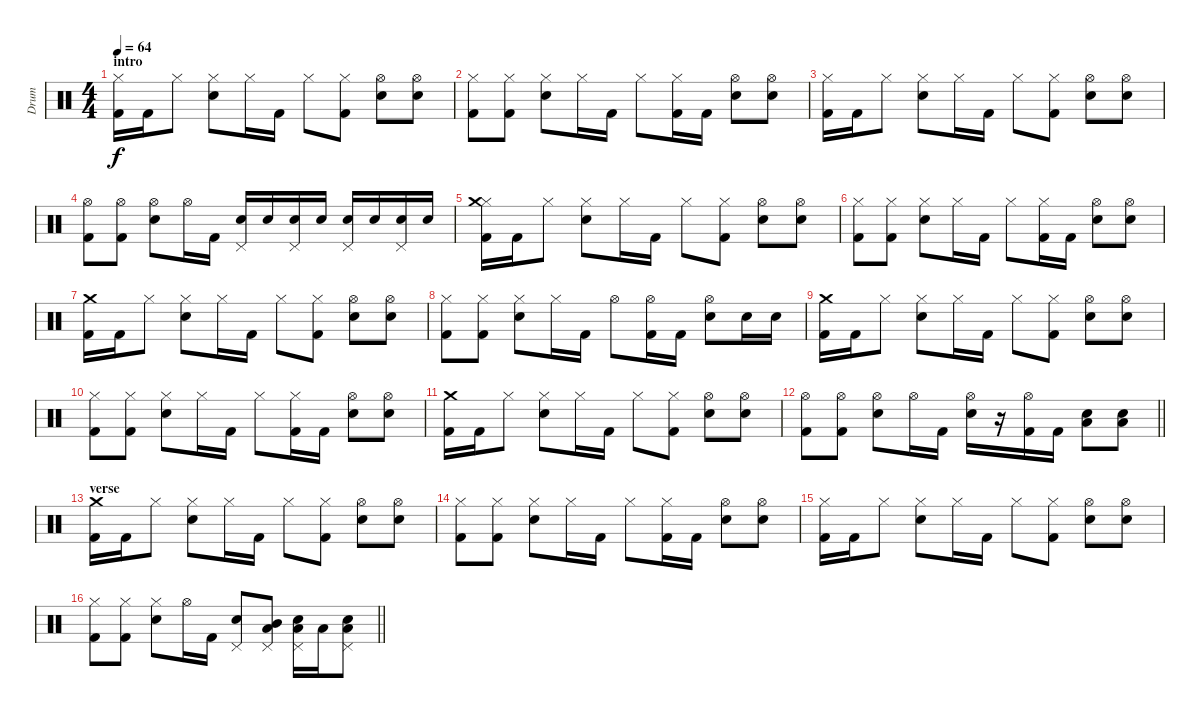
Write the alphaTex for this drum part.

\track ("Drum" "Drum") {instrument percussion}
\staff {score}
\articulation defaults
\ts (4 4)
\section ("" "intro")
\tempo 64
\clef neutral
\ks c
("Hi-Hat (closed)" "Kick (hit) 2").16{dy f} "Kick (hit) 2".16 "Hi-Hat (closed)".8 ("Electric Snare (hit)" "Hi-Hat (closed)").8 "Hi-Hat (closed)".16 "Kick (hit) 2".16 "Hi-Hat (closed)".8 ("Hi-Hat (closed)" "Kick (hit) 2").8 ("Electric Snare (hit)" "Hi-Hat (open)").8 ("Electric Snare (hit)" "Hi-Hat (open)").8 |
("Hi-Hat (closed)" "Kick (hit) 2").8 ("Hi-Hat (closed)" "Kick (hit) 2").8 ("Electric Snare (hit)" "Hi-Hat (closed)").8 "Hi-Hat (closed)".16 "Kick (hit) 2".16 "Hi-Hat (closed)".8 ("Hi-Hat (closed)" "Kick (hit) 2").16 "Kick (hit) 2".16 ("Electric Snare (hit)" "Hi-Hat (open)").8 ("Electric Snare (hit)" "Hi-Hat (open)").8 |
("Hi-Hat (closed)" "Kick (hit) 2").16 "Kick (hit) 2".16 "Hi-Hat (closed)".8 ("Electric Snare (hit)" "Hi-Hat (closed)").8 "Hi-Hat (closed)".16 "Kick (hit) 2".16 "Hi-Hat (closed)".8 ("Hi-Hat (closed)" "Kick (hit) 2").8 ("Electric Snare (hit)" "Hi-Hat (open)").8 ("Electric Snare (hit)" "Hi-Hat (open)").8 |
("Hi-Hat (open)" "Kick (hit) 2").8 ("Hi-Hat (open)" "Kick (hit) 2").8 ("Electric Snare (hit)" "Hi-Hat (open)").8 "Hi-Hat (open)".16 "Kick (hit) 2".16 ("Electric Snare (hit)" "Pedal Hi-Hat (hit)").16 "Electric Snare (hit)".16 ("Electric Snare (hit)" "Pedal Hi-Hat (hit)").16 "Electric Snare (hit)".16 ("Electric Snare (hit)" "Pedal Hi-Hat (hit)").16 "Electric Snare (hit)".16 ("Electric Snare (hit)" "Pedal Hi-Hat (hit)").16 "Electric Snare (hit)".16 |
("Hi-Hat (closed)" "Kick (hit) 2" "Crash medium (hit)").16 "Kick (hit) 2".16 "Hi-Hat (closed)".8 ("Electric Snare (hit)" "Hi-Hat (closed)").8 "Hi-Hat (closed)".16 "Kick (hit) 2".16 "Hi-Hat (closed)".8 ("Hi-Hat (closed)" "Kick (hit) 2").8 ("Electric Snare (hit)" "Hi-Hat (open)").8 ("Electric Snare (hit)" "Hi-Hat (open)").8 |
("Hi-Hat (closed)" "Kick (hit) 2").8 ("Hi-Hat (closed)" "Kick (hit) 2").8 ("Electric Snare (hit)" "Hi-Hat (closed)").8 "Hi-Hat (closed)".16 "Kick (hit) 2".16 "Hi-Hat (closed)".8 ("Hi-Hat (closed)" "Kick (hit) 2").16 "Kick (hit) 2".16 ("Electric Snare (hit)" "Hi-Hat (open)").8 ("Electric Snare (hit)" "Hi-Hat (open)").8 |
("Kick (hit) 2" "Crash medium (hit)").16 "Kick (hit) 2".16 "Hi-Hat (closed)".8 ("Electric Snare (hit)" "Hi-Hat (closed)").8 "Hi-Hat (closed)".16 "Kick (hit) 2".16 "Hi-Hat (closed)".8 ("Hi-Hat (closed)" "Kick (hit) 2").8 ("Electric Snare (hit)" "Hi-Hat (open)").8 ("Electric Snare (hit)" "Hi-Hat (open)").8 |
("Hi-Hat (closed)" "Kick (hit) 2").8 ("Hi-Hat (closed)" "Kick (hit) 2").8 ("Electric Snare (hit)" "Hi-Hat (closed)").8 "Hi-Hat (closed)".16 "Kick (hit) 2".16 "Hi-Hat (open)".8 ("Hi-Hat (open)" "Kick (hit) 2").16 "Kick (hit) 2".16 ("Electric Snare (hit)" "Hi-Hat (open)").8 "Electric Snare (hit)".16 "Electric Snare (hit)".16 |
("Kick (hit) 2" "Crash medium (hit)").16 "Kick (hit) 2".16 "Hi-Hat (closed)".8 ("Electric Snare (hit)" "Hi-Hat (closed)").8 "Hi-Hat (closed)".16 "Kick (hit) 2".16 "Hi-Hat (closed)".8 ("Hi-Hat (closed)" "Kick (hit) 2").8 ("Electric Snare (hit)" "Hi-Hat (open)").8 ("Electric Snare (hit)" "Hi-Hat (open)").8 |
("Hi-Hat (closed)" "Kick (hit) 2").8 ("Hi-Hat (closed)" "Kick (hit) 2").8 ("Electric Snare (hit)" "Hi-Hat (closed)").8 "Hi-Hat (closed)".16 "Kick (hit) 2".16 "Hi-Hat (closed)".8 ("Hi-Hat (closed)" "Kick (hit) 2").16 "Kick (hit) 2".16 ("Electric Snare (hit)" "Hi-Hat (open)").8 ("Electric Snare (hit)" "Hi-Hat (open)").8 |
("Kick (hit) 2" "Crash medium (hit)").16 "Kick (hit) 2".16 "Hi-Hat (closed)".8 ("Electric Snare (hit)" "Hi-Hat (closed)").8 "Hi-Hat (closed)".16 "Kick (hit) 2".16 "Hi-Hat (closed)".8 ("Hi-Hat (closed)" "Kick (hit) 2").8 ("Electric Snare (hit)" "Hi-Hat (open)").8 ("Electric Snare (hit)" "Hi-Hat (open)").8 |
\barLineRight lightlight
("Hi-Hat (open)" "Kick (hit) 2").8 ("Hi-Hat (open)" "Kick (hit) 2").8 ("Electric Snare (hit)" "Hi-Hat (open)").8 "Hi-Hat (open)".16 "Kick (hit) 2".16 ("Electric Snare (hit)" "Hi-Hat (open)").16 r.16 ("Hi-Hat (open)" "Kick (hit) 2").16 "Kick (hit) 2".16 ("Electric Snare (hit)" "Low Floor Tom (hit)").8 ("Electric Snare (hit)" "Low Floor Tom (hit)").8 |
\section ("" "verse")
("Kick (hit) 2" "Crash medium (hit)").16 "Kick (hit) 2".16 "Hi-Hat (closed)".8 ("Electric Snare (hit)" "Hi-Hat (closed)").8 "Hi-Hat (closed)".16 "Kick (hit) 2".16 "Hi-Hat (closed)".8 ("Hi-Hat (closed)" "Kick (hit) 2").8 ("Electric Snare (hit)" "Hi-Hat (open)").8 ("Electric Snare (hit)" "Hi-Hat (open)").8 |
("Hi-Hat (closed)" "Kick (hit) 2").8 ("Hi-Hat (closed)" "Kick (hit) 2").8 ("Electric Snare (hit)" "Hi-Hat (closed)").8 "Hi-Hat (closed)".16 "Kick (hit) 2".16 "Hi-Hat (closed)".8 ("Hi-Hat (closed)" "Kick (hit) 2").16 "Kick (hit) 2".16 ("Electric Snare (hit)" "Hi-Hat (open)").8 ("Electric Snare (hit)" "Hi-Hat (open)").8 |
("Hi-Hat (closed)" "Kick (hit) 2").16 "Kick (hit) 2".16 "Hi-Hat (closed)".8 ("Electric Snare (hit)" "Hi-Hat (closed)").8 "Hi-Hat (closed)".16 "Kick (hit) 2".16 "Hi-Hat (closed)".8 ("Hi-Hat (closed)" "Kick (hit) 2").8 ("Electric Snare (hit)" "Hi-Hat (open)").8 ("Electric Snare (hit)" "Hi-Hat (open)").8 |
\barLineRight lightlight
("Hi-Hat (closed)" "Kick (hit) 2").8 ("Hi-Hat (closed)" "Kick (hit) 2").8 ("Electric Snare (hit)" "Hi-Hat (closed)").8 "Hi-Hat (open)".16 "Kick (hit) 2".16 ("Electric Snare (hit)" "Pedal Hi-Hat (hit)").8 ("Pedal Hi-Hat (hit)" "Low Tom (hit)" "Mid Tom (hit)").8 ("Electric Snare (hit)" "Pedal Hi-Hat (hit)" "Low Tom (hit)").16 "Low Floor Tom (hit)".16 ("Electric Snare (hit)" "Pedal Hi-Hat (hit)" "Low Tom (hit)").8
